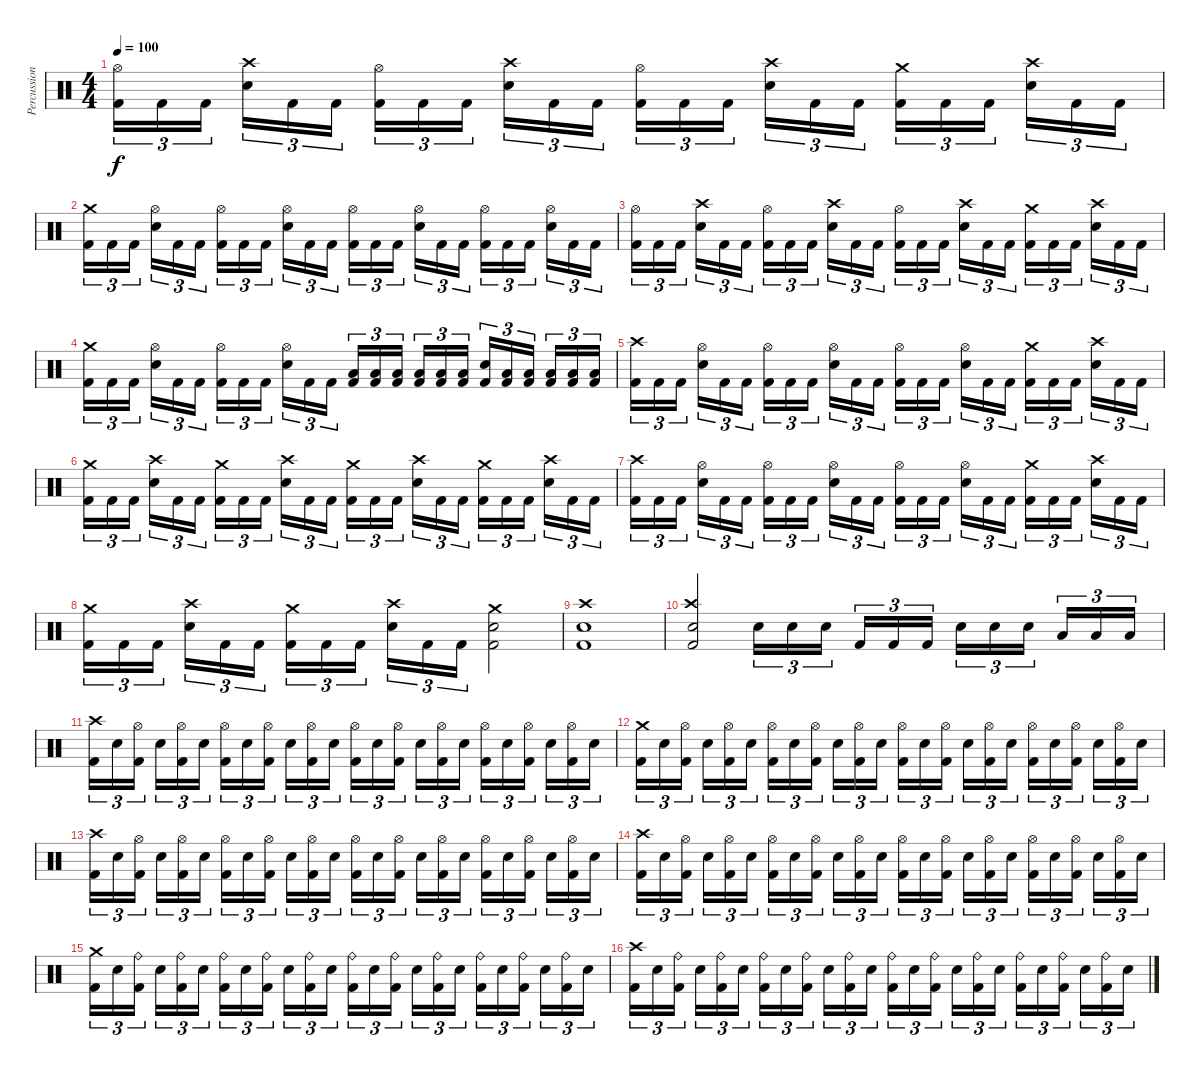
\track ("Percussion" "Percussion") {instrument percussion}
\staff {score}
\articulation defaults
\ts (4 4)
\tempo 100
\clef neutral
\ks c
("Hi-Hat (open)" "Kick (hit) 2").16{tu (3 2) dy f} "Kick (hit) 2".16{tu (3 2)} "Kick (hit) 2".16{tu (3 2)} ("Crash high (hit)" "Electric Snare (hit)").16{tu (3 2)} "Kick (hit) 2".16{tu (3 2)} "Kick (hit) 2".16{tu (3 2)} ("Hi-Hat (open)" "Kick (hit) 2").16{tu (3 2)} "Kick (hit) 2".16{tu (3 2)} "Kick (hit) 2".16{tu (3 2)} ("Crash high (hit)" "Electric Snare (hit)").16{tu (3 2)} "Kick (hit) 2".16{tu (3 2)} "Kick (hit) 2".16{tu (3 2)} ("Hi-Hat (open)" "Kick (hit) 2").16{tu (3 2)} "Kick (hit) 2".16{tu (3 2)} "Kick (hit) 2".16{tu (3 2)} ("Crash high (hit)" "Electric Snare (hit)").16{tu (3 2)} "Kick (hit) 2".16{tu (3 2)} "Kick (hit) 2".16{tu (3 2)} ("Crash medium (hit)" "Kick (hit) 2").16{tu (3 2)} "Kick (hit) 2".16{tu (3 2)} "Kick (hit) 2".16{tu (3 2)} ("Crash high (hit)" "Electric Snare (hit)").16{tu (3 2)} "Kick (hit) 2".16{tu (3 2)} "Kick (hit) 2".16{tu (3 2)} |
("Crash medium (hit)" "Kick (hit) 2").16{tu (3 2)} "Kick (hit) 2".16{tu (3 2)} "Kick (hit) 2".16{tu (3 2)} ("Hi-Hat (open)" "Electric Snare (hit)").16{tu (3 2)} "Kick (hit) 2".16{tu (3 2)} "Kick (hit) 2".16{tu (3 2)} ("Hi-Hat (open)" "Kick (hit) 2").16{tu (3 2)} "Kick (hit) 2".16{tu (3 2)} "Kick (hit) 2".16{tu (3 2)} ("Hi-Hat (open)" "Electric Snare (hit)").16{tu (3 2)} "Kick (hit) 2".16{tu (3 2)} "Kick (hit) 2".16{tu (3 2)} ("Hi-Hat (open)" "Kick (hit) 2").16{tu (3 2)} "Kick (hit) 2".16{tu (3 2)} "Kick (hit) 2".16{tu (3 2)} ("Hi-Hat (open)" "Electric Snare (hit)").16{tu (3 2)} "Kick (hit) 2".16{tu (3 2)} "Kick (hit) 2".16{tu (3 2)} ("Hi-Hat (open)" "Kick (hit) 2").16{tu (3 2)} "Kick (hit) 2".16{tu (3 2)} "Kick (hit) 2".16{tu (3 2)} ("Hi-Hat (open)" "Electric Snare (hit)").16{tu (3 2)} "Kick (hit) 2".16{tu (3 2)} "Kick (hit) 2".16{tu (3 2)} |
("Hi-Hat (open)" "Kick (hit) 2").16{tu (3 2)} "Kick (hit) 2".16{tu (3 2)} "Kick (hit) 2".16{tu (3 2)} ("Crash high (hit)" "Electric Snare (hit)").16{tu (3 2)} "Kick (hit) 2".16{tu (3 2)} "Kick (hit) 2".16{tu (3 2)} ("Hi-Hat (open)" "Kick (hit) 2").16{tu (3 2)} "Kick (hit) 2".16{tu (3 2)} "Kick (hit) 2".16{tu (3 2)} ("Crash high (hit)" "Electric Snare (hit)").16{tu (3 2)} "Kick (hit) 2".16{tu (3 2)} "Kick (hit) 2".16{tu (3 2)} ("Hi-Hat (open)" "Kick (hit) 2").16{tu (3 2)} "Kick (hit) 2".16{tu (3 2)} "Kick (hit) 2".16{tu (3 2)} ("Crash high (hit)" "Electric Snare (hit)").16{tu (3 2)} "Kick (hit) 2".16{tu (3 2)} "Kick (hit) 2".16{tu (3 2)} ("Crash medium (hit)" "Kick (hit) 2").16{tu (3 2)} "Kick (hit) 2".16{tu (3 2)} "Kick (hit) 2".16{tu (3 2)} ("Crash high (hit)" "Electric Snare (hit)").16{tu (3 2)} "Kick (hit) 2".16{tu (3 2)} "Kick (hit) 2".16{tu (3 2)} |
("Crash medium (hit)" "Kick (hit) 2").16{tu (3 2)} "Kick (hit) 2".16{tu (3 2)} "Kick (hit) 2".16{tu (3 2)} ("Hi-Hat (open)" "Electric Snare (hit)").16{tu (3 2)} "Kick (hit) 2".16{tu (3 2)} "Kick (hit) 2".16{tu (3 2)} ("Hi-Hat (open)" "Kick (hit) 2").16{tu (3 2)} "Kick (hit) 2".16{tu (3 2)} "Kick (hit) 2".16{tu (3 2)} ("Hi-Hat (open)" "Electric Snare (hit)").16{tu (3 2)} "Kick (hit) 2".16{tu (3 2)} "Kick (hit) 2".16{tu (3 2)} ("Low Tom (hit)" "Kick (hit) 2").16{tu (3 2)} ("Low Tom (hit)" "Kick (hit) 2").16{tu (3 2)} ("Low Tom (hit)" "Kick (hit) 2").16{tu (3 2)} ("Low Tom (hit)" "Kick (hit) 2").16{tu (3 2)} ("Low Tom (hit)" "Kick (hit) 2").16{tu (3 2)} ("Low Tom (hit)" "Kick (hit) 2").16{tu (3 2)} ("Electric Snare (hit)" "Kick (hit) 2").16{tu (3 2)} ("Low Tom (hit)" "Kick (hit) 2").16{tu (3 2)} ("Low Tom (hit)" "Kick (hit) 2").16{tu (3 2)} ("Low Tom (hit)" "Kick (hit) 2").16{tu (3 2)} ("Low Tom (hit)" "Kick (hit) 2").16{tu (3 2)} ("Low Tom (hit)" "Kick (hit) 2").16{tu (3 2)} |
("Crash high (hit)" "Kick (hit) 2").16{tu (3 2)} "Kick (hit) 2".16{tu (3 2)} "Kick (hit) 2".16{tu (3 2)} ("Hi-Hat (open)" "Electric Snare (hit)").16{tu (3 2)} "Kick (hit) 2".16{tu (3 2)} "Kick (hit) 2".16{tu (3 2)} ("Hi-Hat (open)" "Kick (hit) 2").16{tu (3 2)} "Kick (hit) 2".16{tu (3 2)} "Kick (hit) 2".16{tu (3 2)} ("Hi-Hat (open)" "Electric Snare (hit)").16{tu (3 2)} "Kick (hit) 2".16{tu (3 2)} "Kick (hit) 2".16{tu (3 2)} ("Hi-Hat (open)" "Kick (hit) 2").16{tu (3 2)} "Kick (hit) 2".16{tu (3 2)} "Kick (hit) 2".16{tu (3 2)} ("Hi-Hat (open)" "Electric Snare (hit)").16{tu (3 2)} "Kick (hit) 2".16{tu (3 2)} "Kick (hit) 2".16{tu (3 2)} ("Crash medium (hit)" "Kick (hit) 2").16{tu (3 2)} "Kick (hit) 2".16{tu (3 2)} "Kick (hit) 2".16{tu (3 2)} ("Crash high (hit)" "Electric Snare (hit)").16{tu (3 2)} "Kick (hit) 2".16{tu (3 2)} "Kick (hit) 2".16{tu (3 2)} |
("Crash medium (hit)" "Kick (hit) 2").16{tu (3 2)} "Kick (hit) 2".16{tu (3 2)} "Kick (hit) 2".16{tu (3 2)} ("Crash high (hit)" "Electric Snare (hit)").16{tu (3 2)} "Kick (hit) 2".16{tu (3 2)} "Kick (hit) 2".16{tu (3 2)} ("Crash medium (hit)" "Kick (hit) 2").16{tu (3 2)} "Kick (hit) 2".16{tu (3 2)} "Kick (hit) 2".16{tu (3 2)} ("Crash high (hit)" "Electric Snare (hit)").16{tu (3 2)} "Kick (hit) 2".16{tu (3 2)} "Kick (hit) 2".16{tu (3 2)} ("Crash medium (hit)" "Kick (hit) 2").16{tu (3 2)} "Kick (hit) 2".16{tu (3 2)} "Kick (hit) 2".16{tu (3 2)} ("Crash high (hit)" "Electric Snare (hit)").16{tu (3 2)} "Kick (hit) 2".16{tu (3 2)} "Kick (hit) 2".16{tu (3 2)} ("Crash medium (hit)" "Kick (hit) 2").16{tu (3 2)} "Kick (hit) 2".16{tu (3 2)} "Kick (hit) 2".16{tu (3 2)} ("Crash high (hit)" "Electric Snare (hit)").16{tu (3 2)} "Kick (hit) 2".16{tu (3 2)} "Kick (hit) 2".16{tu (3 2)} |
("Crash high (hit)" "Kick (hit) 2").16{tu (3 2)} "Kick (hit) 2".16{tu (3 2)} "Kick (hit) 2".16{tu (3 2)} ("Hi-Hat (open)" "Electric Snare (hit)").16{tu (3 2)} "Kick (hit) 2".16{tu (3 2)} "Kick (hit) 2".16{tu (3 2)} ("Hi-Hat (open)" "Kick (hit) 2").16{tu (3 2)} "Kick (hit) 2".16{tu (3 2)} "Kick (hit) 2".16{tu (3 2)} ("Hi-Hat (open)" "Electric Snare (hit)").16{tu (3 2)} "Kick (hit) 2".16{tu (3 2)} "Kick (hit) 2".16{tu (3 2)} ("Hi-Hat (open)" "Kick (hit) 2").16{tu (3 2)} "Kick (hit) 2".16{tu (3 2)} "Kick (hit) 2".16{tu (3 2)} ("Hi-Hat (open)" "Electric Snare (hit)").16{tu (3 2)} "Kick (hit) 2".16{tu (3 2)} "Kick (hit) 2".16{tu (3 2)} ("Crash medium (hit)" "Kick (hit) 2").16{tu (3 2)} "Kick (hit) 2".16{tu (3 2)} "Kick (hit) 2".16{tu (3 2)} ("Crash high (hit)" "Electric Snare (hit)").16{tu (3 2)} "Kick (hit) 2".16{tu (3 2)} "Kick (hit) 2".16{tu (3 2)} |
("Crash medium (hit)" "Kick (hit) 2").16{tu (3 2)} "Kick (hit) 2".16{tu (3 2)} "Kick (hit) 2".16{tu (3 2)} ("Crash high (hit)" "Electric Snare (hit)").16{tu (3 2)} "Kick (hit) 2".16{tu (3 2)} "Kick (hit) 2".16{tu (3 2)} ("Crash medium (hit)" "Kick (hit) 2").16{tu (3 2)} "Kick (hit) 2".16{tu (3 2)} "Kick (hit) 2".16{tu (3 2)} ("Crash high (hit)" "Electric Snare (hit)").16{tu (3 2)} "Kick (hit) 2".16{tu (3 2)} "Kick (hit) 2".16{tu (3 2)} ("Crash medium (hit)" "Electric Snare (hit)" "Kick (hit) 2").2 |
("Crash high (hit)" "Electric Snare (hit)" "Kick (hit) 2").1 |
("Crash high (hit)" "Electric Snare (hit)" "Kick (hit) 2").2 "Electric Snare (hit)".16{tu (3 2)} "Electric Snare (hit)".16{tu (3 2)} "Electric Snare (hit)".16{tu (3 2)} "Kick (hit) 2".16{tu (3 2)} "Kick (hit) 2".16{tu (3 2)} "Kick (hit) 2".16{tu (3 2)} "Electric Snare (hit)".16{tu (3 2)} "Electric Snare (hit)".16{tu (3 2)} "Electric Snare (hit)".16{tu (3 2)} "Low Tom (hit)".16{tu (3 2)} "Low Tom (hit)".16{tu (3 2)} "Low Tom (hit)".16{tu (3 2)} |
("Crash high (hit)" "Kick (hit) 2").16{tu (3 2)} "Electric Snare (hit)".16{tu (3 2)} ("Hi-Hat (open)" "Kick (hit) 2").16{tu (3 2)} "Electric Snare (hit)".16{tu (3 2)} ("Hi-Hat (open)" "Kick (hit) 2").16{tu (3 2)} "Electric Snare (hit)".16{tu (3 2)} ("Hi-Hat (open)" "Kick (hit) 2").16{tu (3 2)} "Electric Snare (hit)".16{tu (3 2)} ("Hi-Hat (open)" "Kick (hit) 2").16{tu (3 2)} "Electric Snare (hit)".16{tu (3 2)} ("Hi-Hat (open)" "Kick (hit) 2").16{tu (3 2)} "Electric Snare (hit)".16{tu (3 2)} ("Hi-Hat (open)" "Kick (hit) 2").16{tu (3 2)} "Electric Snare (hit)".16{tu (3 2)} ("Hi-Hat (open)" "Kick (hit) 2").16{tu (3 2)} "Electric Snare (hit)".16{tu (3 2)} ("Hi-Hat (open)" "Kick (hit) 2").16{tu (3 2)} "Electric Snare (hit)".16{tu (3 2)} ("Hi-Hat (open)" "Kick (hit) 2").16{tu (3 2)} "Electric Snare (hit)".16{tu (3 2)} ("Hi-Hat (open)" "Kick (hit) 2").16{tu (3 2)} "Electric Snare (hit)".16{tu (3 2)} ("Hi-Hat (open)" "Kick (hit) 2").16{tu (3 2)} "Electric Snare (hit)".16{tu (3 2)} |
("Crash medium (hit)" "Kick (hit) 2").16{tu (3 2)} "Electric Snare (hit)".16{tu (3 2)} ("Hi-Hat (open)" "Kick (hit) 2").16{tu (3 2)} "Electric Snare (hit)".16{tu (3 2)} ("Hi-Hat (open)" "Kick (hit) 2").16{tu (3 2)} "Electric Snare (hit)".16{tu (3 2)} ("Hi-Hat (open)" "Kick (hit) 2").16{tu (3 2)} "Electric Snare (hit)".16{tu (3 2)} ("Hi-Hat (open)" "Kick (hit) 2").16{tu (3 2)} "Electric Snare (hit)".16{tu (3 2)} ("Hi-Hat (open)" "Kick (hit) 2").16{tu (3 2)} "Electric Snare (hit)".16{tu (3 2)} ("Hi-Hat (open)" "Kick (hit) 2").16{tu (3 2)} "Electric Snare (hit)".16{tu (3 2)} ("Hi-Hat (open)" "Kick (hit) 2").16{tu (3 2)} "Electric Snare (hit)".16{tu (3 2)} ("Hi-Hat (open)" "Kick (hit) 2").16{tu (3 2)} "Electric Snare (hit)".16{tu (3 2)} ("Hi-Hat (open)" "Kick (hit) 2").16{tu (3 2)} "Electric Snare (hit)".16{tu (3 2)} ("Hi-Hat (open)" "Kick (hit) 2").16{tu (3 2)} "Electric Snare (hit)".16{tu (3 2)} ("Hi-Hat (open)" "Kick (hit) 2").16{tu (3 2)} "Electric Snare (hit)".16{tu (3 2)} |
("Crash high (hit)" "Kick (hit) 2").16{tu (3 2)} "Electric Snare (hit)".16{tu (3 2)} ("Hi-Hat (open)" "Kick (hit) 2").16{tu (3 2)} "Electric Snare (hit)".16{tu (3 2)} ("Hi-Hat (open)" "Kick (hit) 2").16{tu (3 2)} "Electric Snare (hit)".16{tu (3 2)} ("Hi-Hat (open)" "Kick (hit) 2").16{tu (3 2)} "Electric Snare (hit)".16{tu (3 2)} ("Hi-Hat (open)" "Kick (hit) 2").16{tu (3 2)} "Electric Snare (hit)".16{tu (3 2)} ("Hi-Hat (open)" "Kick (hit) 2").16{tu (3 2)} "Electric Snare (hit)".16{tu (3 2)} ("Hi-Hat (open)" "Kick (hit) 2").16{tu (3 2)} "Electric Snare (hit)".16{tu (3 2)} ("Hi-Hat (open)" "Kick (hit) 2").16{tu (3 2)} "Electric Snare (hit)".16{tu (3 2)} ("Hi-Hat (open)" "Kick (hit) 2").16{tu (3 2)} "Electric Snare (hit)".16{tu (3 2)} ("Hi-Hat (open)" "Kick (hit) 2").16{tu (3 2)} "Electric Snare (hit)".16{tu (3 2)} ("Hi-Hat (open)" "Kick (hit) 2").16{tu (3 2)} "Electric Snare (hit)".16{tu (3 2)} ("Hi-Hat (open)" "Kick (hit) 2").16{tu (3 2)} "Electric Snare (hit)".16{tu (3 2)} |
("Crash high (hit)" "Kick (hit) 2").16{tu (3 2)} "Electric Snare (hit)".16{tu (3 2)} ("Hi-Hat (open)" "Kick (hit) 2").16{tu (3 2)} "Electric Snare (hit)".16{tu (3 2)} ("Hi-Hat (open)" "Kick (hit) 2").16{tu (3 2)} "Electric Snare (hit)".16{tu (3 2)} ("Hi-Hat (open)" "Kick (hit) 2").16{tu (3 2)} "Electric Snare (hit)".16{tu (3 2)} ("Hi-Hat (open)" "Kick (hit) 2").16{tu (3 2)} "Electric Snare (hit)".16{tu (3 2)} ("Hi-Hat (open)" "Kick (hit) 2").16{tu (3 2)} "Electric Snare (hit)".16{tu (3 2)} ("Hi-Hat (open)" "Kick (hit) 2").16{tu (3 2)} "Electric Snare (hit)".16{tu (3 2)} ("Hi-Hat (open)" "Kick (hit) 2").16{tu (3 2)} "Electric Snare (hit)".16{tu (3 2)} ("Hi-Hat (open)" "Kick (hit) 2").16{tu (3 2)} "Electric Snare (hit)".16{tu (3 2)} ("Hi-Hat (open)" "Kick (hit) 2").16{tu (3 2)} "Electric Snare (hit)".16{tu (3 2)} ("Hi-Hat (open)" "Kick (hit) 2").16{tu (3 2)} "Electric Snare (hit)".16{tu (3 2)} ("Hi-Hat (open)" "Kick (hit) 2").16{tu (3 2)} "Electric Snare (hit)".16{tu (3 2)} |
("Crash medium (hit)" "Kick (hit) 2").16{tu (3 2)} "Electric Snare (hit)".16{tu (3 2)} ("Ride (bell)" "Kick (hit) 2").16{tu (3 2)} "Electric Snare (hit)".16{tu (3 2)} ("Ride (bell)" "Kick (hit) 2").16{tu (3 2)} "Electric Snare (hit)".16{tu (3 2)} ("Ride (bell)" "Kick (hit) 2").16{tu (3 2)} "Electric Snare (hit)".16{tu (3 2)} ("Ride (bell)" "Kick (hit) 2").16{tu (3 2)} "Electric Snare (hit)".16{tu (3 2)} ("Ride (bell)" "Kick (hit) 2").16{tu (3 2)} "Electric Snare (hit)".16{tu (3 2)} ("Ride (bell)" "Kick (hit) 2").16{tu (3 2)} "Electric Snare (hit)".16{tu (3 2)} ("Ride (bell)" "Kick (hit) 2").16{tu (3 2)} "Electric Snare (hit)".16{tu (3 2)} ("Ride (bell)" "Kick (hit) 2").16{tu (3 2)} "Electric Snare (hit)".16{tu (3 2)} ("Ride (bell)" "Kick (hit) 2").16{tu (3 2)} "Electric Snare (hit)".16{tu (3 2)} ("Ride (bell)" "Kick (hit) 2").16{tu (3 2)} "Electric Snare (hit)".16{tu (3 2)} ("Ride (bell)" "Kick (hit) 2").16{tu (3 2)} "Electric Snare (hit)".16{tu (3 2)} |
("Crash high (hit)" "Kick (hit) 2").16{tu (3 2)} "Electric Snare (hit)".16{tu (3 2)} ("Ride (bell)" "Kick (hit) 2").16{tu (3 2)} "Electric Snare (hit)".16{tu (3 2)} ("Ride (bell)" "Kick (hit) 2").16{tu (3 2)} "Electric Snare (hit)".16{tu (3 2)} ("Ride (bell)" "Kick (hit) 2").16{tu (3 2)} "Electric Snare (hit)".16{tu (3 2)} ("Ride (bell)" "Kick (hit) 2").16{tu (3 2)} "Electric Snare (hit)".16{tu (3 2)} ("Ride (bell)" "Kick (hit) 2").16{tu (3 2)} "Electric Snare (hit)".16{tu (3 2)} ("Ride (bell)" "Kick (hit) 2").16{tu (3 2)} "Electric Snare (hit)".16{tu (3 2)} ("Ride (bell)" "Kick (hit) 2").16{tu (3 2)} "Electric Snare (hit)".16{tu (3 2)} ("Ride (bell)" "Kick (hit) 2").16{tu (3 2)} "Electric Snare (hit)".16{tu (3 2)} ("Ride (bell)" "Kick (hit) 2").16{tu (3 2)} "Electric Snare (hit)".16{tu (3 2)} ("Ride (bell)" "Kick (hit) 2").16{tu (3 2)} "Electric Snare (hit)".16{tu (3 2)} ("Ride (bell)" "Kick (hit) 2").16{tu (3 2)} "Electric Snare (hit)".16{tu (3 2)}
